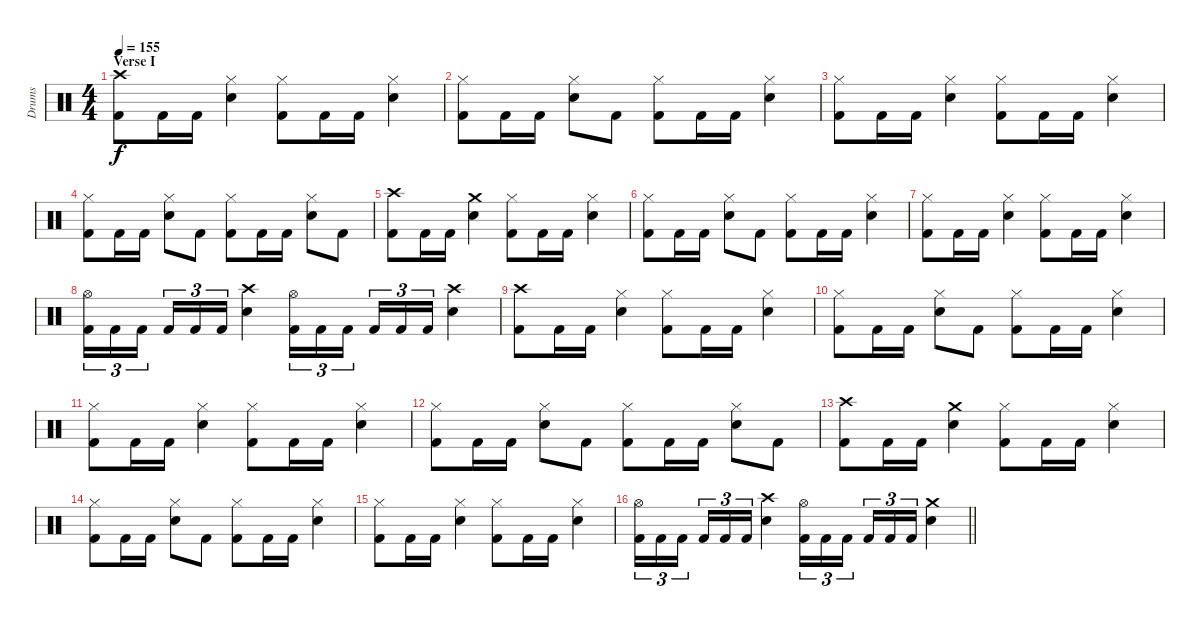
\track ("Drums" "Drums") {instrument percussion}
\staff {score}
\articulation defaults
\ts (4 4)
\section ("" "Verse I")
\tempo 155
\clef neutral
\ks c
("Crash high (hit)" "Kick (hit) 2").8{dy f} "Kick (hit) 2".16 "Kick (hit) 2".16 ("Hi-Hat (closed)" "Snare (hit) 2").4 ("Hi-Hat (closed)" "Kick (hit) 2").8 "Kick (hit) 2".16 "Kick (hit) 2".16 ("Hi-Hat (closed)" "Snare (hit) 2").4 |
("Hi-Hat (closed)" "Kick (hit) 2").8 "Kick (hit) 2".16 "Kick (hit) 2".16 ("Hi-Hat (closed)" "Snare (hit) 2").8 "Kick (hit) 2".8 ("Hi-Hat (closed)" "Kick (hit) 2").8 "Kick (hit) 2".16 "Kick (hit) 2".16 ("Hi-Hat (closed)" "Snare (hit) 2").4 |
("Hi-Hat (closed)" "Kick (hit) 2").8 "Kick (hit) 2".16 "Kick (hit) 2".16 ("Hi-Hat (closed)" "Snare (hit) 2").4 ("Hi-Hat (closed)" "Kick (hit) 2").8 "Kick (hit) 2".16 "Kick (hit) 2".16 ("Hi-Hat (closed)" "Snare (hit) 2").4 |
("Hi-Hat (closed)" "Kick (hit) 2").8 "Kick (hit) 2".16 "Kick (hit) 2".16 ("Hi-Hat (closed)" "Snare (hit) 2").8 "Kick (hit) 2".8 ("Hi-Hat (closed)" "Kick (hit) 2").8 "Kick (hit) 2".16 "Kick (hit) 2".16 ("Hi-Hat (closed)" "Snare (hit) 2").8 "Kick (hit) 2".8 |
("Crash high (hit)" "Kick (hit) 2").8 "Kick (hit) 2".16 "Kick (hit) 2".16 ("Crash medium (hit)" "Snare (hit) 2").4 ("Hi-Hat (closed)" "Kick (hit) 2").8 "Kick (hit) 2".16 "Kick (hit) 2".16 ("Hi-Hat (closed)" "Snare (hit) 2").4 |
("Hi-Hat (closed)" "Kick (hit) 2").8 "Kick (hit) 2".16 "Kick (hit) 2".16 ("Hi-Hat (closed)" "Snare (hit) 2").8 "Kick (hit) 2".8 ("Hi-Hat (closed)" "Kick (hit) 2").8 "Kick (hit) 2".16 "Kick (hit) 2".16 ("Hi-Hat (closed)" "Snare (hit) 2").4 |
("Hi-Hat (closed)" "Kick (hit) 2").8 "Kick (hit) 2".16 "Kick (hit) 2".16 ("Hi-Hat (closed)" "Snare (hit) 2").4 ("Hi-Hat (closed)" "Kick (hit) 2").8 "Kick (hit) 2".16 "Kick (hit) 2".16 ("Hi-Hat (closed)" "Snare (hit) 2").4 |
("Hi-Hat (open)" "Kick (hit) 2").16{tu (3 2)} "Kick (hit) 2".16{tu (3 2)} "Kick (hit) 2".16{tu (3 2) beam splitsecondary} "Kick (hit) 2".16{tu (3 2)} "Kick (hit) 2".16{tu (3 2)} "Kick (hit) 2".16{tu (3 2)} ("Crash high (hit)" "Snare (hit) 2").4 ("Hi-Hat (open)" "Kick (hit) 2").16{tu (3 2)} "Kick (hit) 2".16{tu (3 2)} "Kick (hit) 2".16{tu (3 2) beam splitsecondary} "Kick (hit) 2".16{tu (3 2)} "Kick (hit) 2".16{tu (3 2)} "Kick (hit) 2".16{tu (3 2)} ("Crash high (hit)" "Snare (hit) 2").4 |
("Crash high (hit)" "Kick (hit) 2").8 "Kick (hit) 2".16 "Kick (hit) 2".16 ("Hi-Hat (closed)" "Snare (hit) 2").4 ("Hi-Hat (closed)" "Kick (hit) 2").8 "Kick (hit) 2".16 "Kick (hit) 2".16 ("Hi-Hat (closed)" "Snare (hit) 2").4 |
("Hi-Hat (closed)" "Kick (hit) 2").8 "Kick (hit) 2".16 "Kick (hit) 2".16 ("Hi-Hat (closed)" "Snare (hit) 2").8 "Kick (hit) 2".8 ("Hi-Hat (closed)" "Kick (hit) 2").8 "Kick (hit) 2".16 "Kick (hit) 2".16 ("Hi-Hat (closed)" "Snare (hit) 2").4 |
("Hi-Hat (closed)" "Kick (hit) 2").8 "Kick (hit) 2".16 "Kick (hit) 2".16 ("Hi-Hat (closed)" "Snare (hit) 2").4 ("Hi-Hat (closed)" "Kick (hit) 2").8 "Kick (hit) 2".16 "Kick (hit) 2".16 ("Hi-Hat (closed)" "Snare (hit) 2").4 |
("Hi-Hat (closed)" "Kick (hit) 2").8 "Kick (hit) 2".16 "Kick (hit) 2".16 ("Hi-Hat (closed)" "Snare (hit) 2").8 "Kick (hit) 2".8 ("Hi-Hat (closed)" "Kick (hit) 2").8 "Kick (hit) 2".16 "Kick (hit) 2".16 ("Hi-Hat (closed)" "Snare (hit) 2").8 "Kick (hit) 2".8 |
("Crash high (hit)" "Kick (hit) 2").8 "Kick (hit) 2".16 "Kick (hit) 2".16 ("Crash medium (hit)" "Snare (hit) 2").4 ("Hi-Hat (closed)" "Kick (hit) 2").8 "Kick (hit) 2".16 "Kick (hit) 2".16 ("Hi-Hat (closed)" "Snare (hit) 2").4 |
("Hi-Hat (closed)" "Kick (hit) 2").8 "Kick (hit) 2".16 "Kick (hit) 2".16 ("Hi-Hat (closed)" "Snare (hit) 2").8 "Kick (hit) 2".8 ("Hi-Hat (closed)" "Kick (hit) 2").8 "Kick (hit) 2".16 "Kick (hit) 2".16 ("Hi-Hat (closed)" "Snare (hit) 2").4 |
("Hi-Hat (closed)" "Kick (hit) 2").8 "Kick (hit) 2".16 "Kick (hit) 2".16 ("Hi-Hat (closed)" "Snare (hit) 2").4 ("Hi-Hat (closed)" "Kick (hit) 2").8 "Kick (hit) 2".16 "Kick (hit) 2".16 ("Hi-Hat (closed)" "Snare (hit) 2").4 |
\barLineRight lightlight
("Hi-Hat (open)" "Kick (hit) 2").16{tu (3 2)} "Kick (hit) 2".16{tu (3 2)} "Kick (hit) 2".16{tu (3 2) beam splitsecondary} "Kick (hit) 2".16{tu (3 2)} "Kick (hit) 2".16{tu (3 2)} "Kick (hit) 2".16{tu (3 2)} ("Crash high (hit)" "Snare (hit) 2").4 ("Hi-Hat (open)" "Kick (hit) 2").16{tu (3 2)} "Kick (hit) 2".16{tu (3 2)} "Kick (hit) 2".16{tu (3 2) beam splitsecondary} "Kick (hit) 2".16{tu (3 2)} "Kick (hit) 2".16{tu (3 2)} "Kick (hit) 2".16{tu (3 2)} ("Crash medium (hit)" "Snare (hit) 2").4
